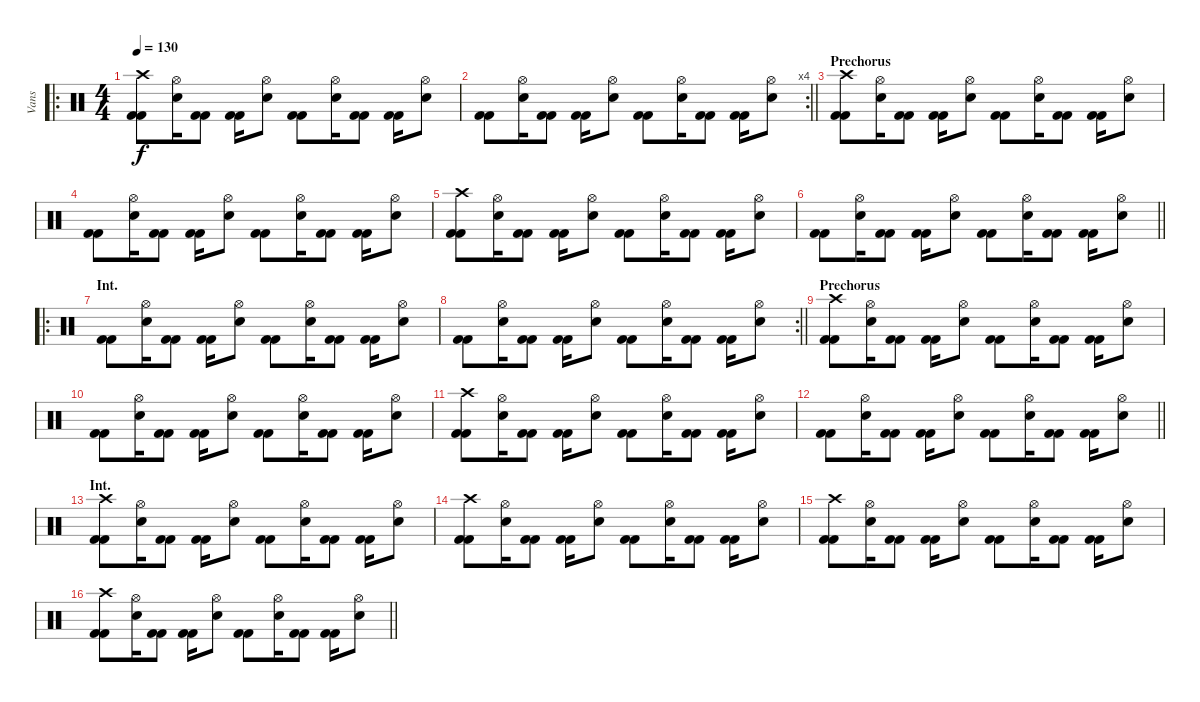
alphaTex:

\track ("Vans" "Vans") {instrument percussion}
\staff {score}
\articulation defaults
\ro
\ts (4 4)
\tempo 130
\clef neutral
\ks c
("Crash high (hit)" "Kick (hit) 2" "Kick (hit) 2").8{dy f} ("Hi-Hat (open)" "Snare (hit) 2").16 ("Kick (hit) 2" "Kick (hit) 2").8 ("Kick (hit) 2" "Kick (hit) 2").16 ("Hi-Hat (open)" "Snare (hit) 2").8 ("Kick (hit) 2" "Kick (hit) 2").8 ("Hi-Hat (open)" "Snare (hit) 2").16 ("Kick (hit) 2" "Kick (hit) 2").8 ("Kick (hit) 2" "Kick (hit) 2").16 ("Hi-Hat (open)" "Snare (hit) 2").8 |
\rc 4
\barLineRight lightlight
("Kick (hit) 2" "Kick (hit) 2").8 ("Hi-Hat (open)" "Snare (hit) 2").16 ("Kick (hit) 2" "Kick (hit) 2").8 ("Kick (hit) 2" "Kick (hit) 2").16 ("Hi-Hat (open)" "Snare (hit) 2").8 ("Kick (hit) 2" "Kick (hit) 2").8 ("Hi-Hat (open)" "Snare (hit) 2").16 ("Kick (hit) 2" "Kick (hit) 2").8 ("Kick (hit) 2" "Kick (hit) 2").16 ("Hi-Hat (open)" "Snare (hit) 2").8 |
\section ("" "Prechorus")
("Crash high (hit)" "Kick (hit) 2" "Kick (hit) 2").8 ("Hi-Hat (open)" "Snare (hit) 2").16 ("Kick (hit) 2" "Kick (hit) 2").8 ("Kick (hit) 2" "Kick (hit) 2").16 ("Hi-Hat (open)" "Snare (hit) 2").8 ("Kick (hit) 2" "Kick (hit) 2").8 ("Hi-Hat (open)" "Snare (hit) 2").16 ("Kick (hit) 2" "Kick (hit) 2").8 ("Kick (hit) 2" "Kick (hit) 2").16 ("Hi-Hat (open)" "Snare (hit) 2").8 |
("Kick (hit) 2" "Kick (hit) 2").8 ("Hi-Hat (open)" "Snare (hit) 2").16 ("Kick (hit) 2" "Kick (hit) 2").8 ("Kick (hit) 2" "Kick (hit) 2").16 ("Hi-Hat (open)" "Snare (hit) 2").8 ("Kick (hit) 2" "Kick (hit) 2").8 ("Hi-Hat (open)" "Snare (hit) 2").16 ("Kick (hit) 2" "Kick (hit) 2").8 ("Kick (hit) 2" "Kick (hit) 2").16 ("Hi-Hat (open)" "Snare (hit) 2").8 |
("Crash high (hit)" "Kick (hit) 2" "Kick (hit) 2").8 ("Hi-Hat (open)" "Snare (hit) 2").16 ("Kick (hit) 2" "Kick (hit) 2").8 ("Kick (hit) 2" "Kick (hit) 2").16 ("Hi-Hat (open)" "Snare (hit) 2").8 ("Kick (hit) 2" "Kick (hit) 2").8 ("Hi-Hat (open)" "Snare (hit) 2").16 ("Kick (hit) 2" "Kick (hit) 2").8 ("Kick (hit) 2" "Kick (hit) 2").16 ("Hi-Hat (open)" "Snare (hit) 2").8 |
\barLineRight lightlight
("Kick (hit) 2" "Kick (hit) 2").8 ("Hi-Hat (open)" "Snare (hit) 2").16 ("Kick (hit) 2" "Kick (hit) 2").8 ("Kick (hit) 2" "Kick (hit) 2").16 ("Hi-Hat (open)" "Snare (hit) 2").8 ("Kick (hit) 2" "Kick (hit) 2").8 ("Hi-Hat (open)" "Snare (hit) 2").16 ("Kick (hit) 2" "Kick (hit) 2").8 ("Kick (hit) 2" "Kick (hit) 2").16 ("Hi-Hat (open)" "Snare (hit) 2").8 |
\ro
\section ("" "Int.")
("Kick (hit) 2" "Kick (hit) 2").8 ("Hi-Hat (open)" "Snare (hit) 2").16 ("Kick (hit) 2" "Kick (hit) 2").8 ("Kick (hit) 2" "Kick (hit) 2").16 ("Hi-Hat (open)" "Snare (hit) 2").8 ("Kick (hit) 2" "Kick (hit) 2").8 ("Hi-Hat (open)" "Snare (hit) 2").16 ("Kick (hit) 2" "Kick (hit) 2").8 ("Kick (hit) 2" "Kick (hit) 2").16 ("Hi-Hat (open)" "Snare (hit) 2").8 |
\rc 2
\barLineRight lightlight
("Kick (hit) 2" "Kick (hit) 2").8 ("Hi-Hat (open)" "Snare (hit) 2").16 ("Kick (hit) 2" "Kick (hit) 2").8 ("Kick (hit) 2" "Kick (hit) 2").16 ("Hi-Hat (open)" "Snare (hit) 2").8 ("Kick (hit) 2" "Kick (hit) 2").8 ("Hi-Hat (open)" "Snare (hit) 2").16 ("Kick (hit) 2" "Kick (hit) 2").8 ("Kick (hit) 2" "Kick (hit) 2").16 ("Hi-Hat (open)" "Snare (hit) 2").8 |
\section ("" "Prechorus")
("Crash high (hit)" "Kick (hit) 2" "Kick (hit) 2").8 ("Hi-Hat (open)" "Snare (hit) 2").16 ("Kick (hit) 2" "Kick (hit) 2").8 ("Kick (hit) 2" "Kick (hit) 2").16 ("Hi-Hat (open)" "Snare (hit) 2").8 ("Kick (hit) 2" "Kick (hit) 2").8 ("Hi-Hat (open)" "Snare (hit) 2").16 ("Kick (hit) 2" "Kick (hit) 2").8 ("Kick (hit) 2" "Kick (hit) 2").16 ("Hi-Hat (open)" "Snare (hit) 2").8 |
("Kick (hit) 2" "Kick (hit) 2").8 ("Hi-Hat (open)" "Snare (hit) 2").16 ("Kick (hit) 2" "Kick (hit) 2").8 ("Kick (hit) 2" "Kick (hit) 2").16 ("Hi-Hat (open)" "Snare (hit) 2").8 ("Kick (hit) 2" "Kick (hit) 2").8 ("Hi-Hat (open)" "Snare (hit) 2").16 ("Kick (hit) 2" "Kick (hit) 2").8 ("Kick (hit) 2" "Kick (hit) 2").16 ("Hi-Hat (open)" "Snare (hit) 2").8 |
("Crash high (hit)" "Kick (hit) 2" "Kick (hit) 2").8 ("Hi-Hat (open)" "Snare (hit) 2").16 ("Kick (hit) 2" "Kick (hit) 2").8 ("Kick (hit) 2" "Kick (hit) 2").16 ("Hi-Hat (open)" "Snare (hit) 2").8 ("Kick (hit) 2" "Kick (hit) 2").8 ("Hi-Hat (open)" "Snare (hit) 2").16 ("Kick (hit) 2" "Kick (hit) 2").8 ("Kick (hit) 2" "Kick (hit) 2").16 ("Hi-Hat (open)" "Snare (hit) 2").8 |
\barLineRight lightlight
("Kick (hit) 2" "Kick (hit) 2").8 ("Hi-Hat (open)" "Snare (hit) 2").16 ("Kick (hit) 2" "Kick (hit) 2").8 ("Kick (hit) 2" "Kick (hit) 2").16 ("Hi-Hat (open)" "Snare (hit) 2").8 ("Kick (hit) 2" "Kick (hit) 2").8 ("Hi-Hat (open)" "Snare (hit) 2").16 ("Kick (hit) 2" "Kick (hit) 2").8 ("Kick (hit) 2" "Kick (hit) 2").16 ("Hi-Hat (open)" "Snare (hit) 2").8 |
\section ("" "Int.")
("Crash high (hit)" "Kick (hit) 2" "Kick (hit) 2").8 ("Hi-Hat (open)" "Snare (hit) 2").16 ("Kick (hit) 2" "Kick (hit) 2").8 ("Kick (hit) 2" "Kick (hit) 2").16 ("Hi-Hat (open)" "Snare (hit) 2").8 ("Kick (hit) 2" "Kick (hit) 2").8 ("Hi-Hat (open)" "Snare (hit) 2").16 ("Kick (hit) 2" "Kick (hit) 2").8 ("Kick (hit) 2" "Kick (hit) 2").16 ("Hi-Hat (open)" "Snare (hit) 2").8 |
("Crash high (hit)" "Kick (hit) 2" "Kick (hit) 2").8 ("Hi-Hat (open)" "Snare (hit) 2").16 ("Kick (hit) 2" "Kick (hit) 2").8 ("Kick (hit) 2" "Kick (hit) 2").16 ("Hi-Hat (open)" "Snare (hit) 2").8 ("Kick (hit) 2" "Kick (hit) 2").8 ("Hi-Hat (open)" "Snare (hit) 2").16 ("Kick (hit) 2" "Kick (hit) 2").8 ("Kick (hit) 2" "Kick (hit) 2").16 ("Hi-Hat (open)" "Snare (hit) 2").8 |
("Crash high (hit)" "Kick (hit) 2" "Kick (hit) 2").8 ("Hi-Hat (open)" "Snare (hit) 2").16 ("Kick (hit) 2" "Kick (hit) 2").8 ("Kick (hit) 2" "Kick (hit) 2").16 ("Hi-Hat (open)" "Snare (hit) 2").8 ("Kick (hit) 2" "Kick (hit) 2").8 ("Hi-Hat (open)" "Snare (hit) 2").16 ("Kick (hit) 2" "Kick (hit) 2").8 ("Kick (hit) 2" "Kick (hit) 2").16 ("Hi-Hat (open)" "Snare (hit) 2").8 |
\barLineRight lightlight
("Crash high (hit)" "Kick (hit) 2" "Kick (hit) 2").8 ("Hi-Hat (open)" "Snare (hit) 2").16 ("Kick (hit) 2" "Kick (hit) 2").8 ("Kick (hit) 2" "Kick (hit) 2").16 ("Hi-Hat (open)" "Snare (hit) 2").8 ("Kick (hit) 2" "Kick (hit) 2").8 ("Hi-Hat (open)" "Snare (hit) 2").16 ("Kick (hit) 2" "Kick (hit) 2").8 ("Kick (hit) 2" "Kick (hit) 2").16 ("Hi-Hat (open)" "Snare (hit) 2").8
